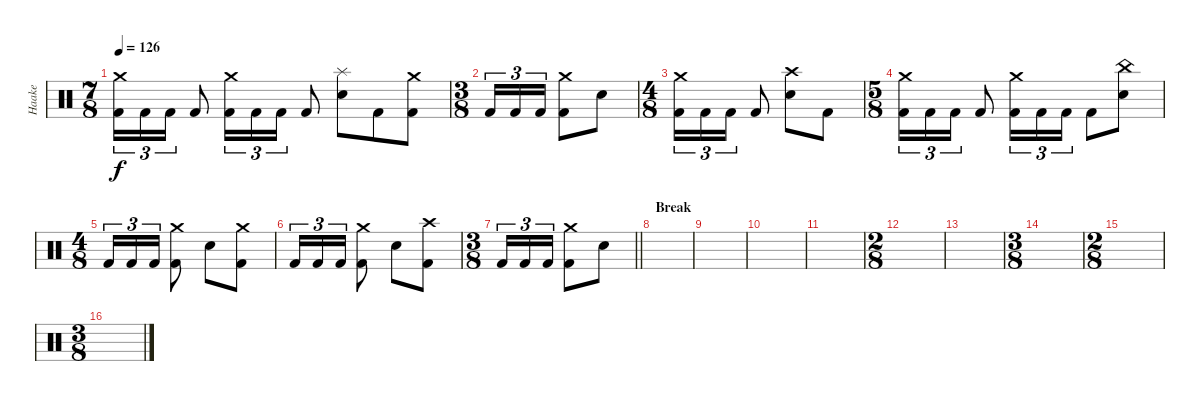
\track ("Haake" "Haake") {instrument percussion}
\staff {score}
\articulation defaults
\ts (7 8)
\tempo 126
\clef neutral
\ks c
("Crash medium (hit)" "Kick (hit) 2").16{tu (3 2) dy f} "Kick (hit) 2".16{tu (3 2)} "Kick (hit) 2".16{tu (3 2)} "Kick (hit) 2".8 ("Crash medium (hit)" "Kick (hit) 2").16{tu (3 2)} "Kick (hit) 2".16{tu (3 2)} "Kick (hit) 2".16{tu (3 2)} "Kick (hit) 2".8 ("Splash (hit)" "Electric Snare (hit)").8 "Kick (hit) 2".8 ("Crash medium (hit)" "Kick (hit) 2").8 |
\ts (3 8)
"Kick (hit) 2".16{tu (3 2)} "Kick (hit) 2".16{tu (3 2)} "Kick (hit) 2".16{tu (3 2)} ("Crash medium (hit)" "Kick (hit) 2").8 "Electric Snare (hit)".8 |
\ts (4 8)
("Crash medium (hit)" "Kick (hit) 2").16{tu (3 2)} "Kick (hit) 2".16{tu (3 2)} "Kick (hit) 2".16{tu (3 2)} "Kick (hit) 2".8 ("Crash high (hit)" "Electric Snare (hit)").8 "Kick (hit) 2".8 |
\ts (5 8)
("Crash medium (hit)" "Kick (hit) 2").16{tu (3 2)} "Kick (hit) 2".16{tu (3 2)} "Kick (hit) 2".16{tu (3 2)} "Kick (hit) 2".8 ("Crash medium (hit)" "Kick (hit) 2").16{tu (3 2)} "Kick (hit) 2".16{tu (3 2)} "Kick (hit) 2".16{tu (3 2)} "Kick (hit) 2".8 ("China (hit)" "Electric Snare (hit)").8 |
\ts (4 8)
"Kick (hit) 2".16{tu (3 2)} "Kick (hit) 2".16{tu (3 2)} "Kick (hit) 2".16{tu (3 2)} ("Crash medium (hit)" "Kick (hit) 2").8 "Electric Snare (hit)".8 ("Crash medium (hit)" "Kick (hit) 2").8 |
"Kick (hit) 2".16{tu (3 2)} "Kick (hit) 2".16{tu (3 2)} "Kick (hit) 2".16{tu (3 2)} ("Crash medium (hit)" "Kick (hit) 2").8 "Electric Snare (hit)".8 ("Crash high (hit)" "Kick (hit) 2").8 |
\ts (3 8)
\barLineRight lightlight "Kick (hit) 2".16{tu (3 2)} "Kick (hit) 2".16{tu (3 2)} "Kick (hit) 2".16{tu (3 2)}
("Crash medium (hit)" "Kick (hit) 2").8 "Electric Snare (hit)".8 |
\section ("" "Break")
|
|
|
|
\ts (2 8)
|
|
\ts (3 8)
|
\ts (2 8)
|
\ts (3 8)
